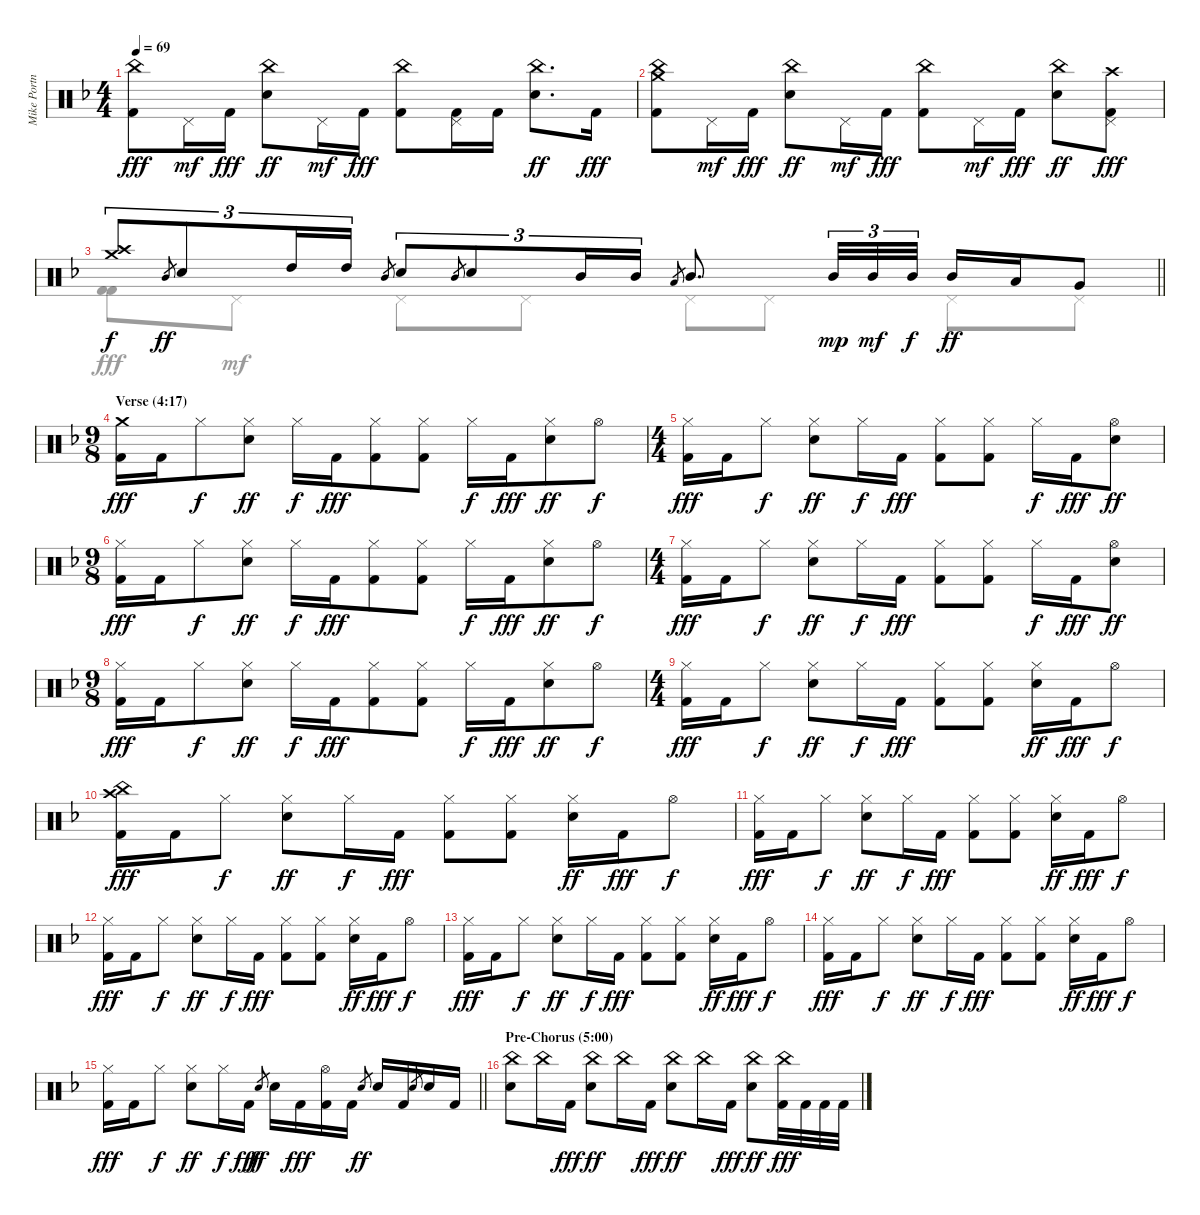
\track ("Mike Portnoy Drums" "Mike Portn") {instrument percussion}
\staff {score}
\articulation defaults
\voice
\ts (4 4)
\tempo 69
\clef neutral
\ks dminor
("China (hit)" "Kick (hit) 2").8{dy fff} "Pedal Hi-Hat (hit)".16{dy mf} "Kick (hit) 2".16{dy fff} ("China (hit)" "Electric Snare (hit)").8{dy ff} "Pedal Hi-Hat (hit)".16{dy mf} "Kick (hit) 2".16{dy fff} ("China (hit)" "Kick (hit) 2").8 ("Pedal Hi-Hat (hit)" "Kick (hit) 2").16 "Kick (hit) 2".16 ("China (hit)" "Electric Snare (hit)").8{d dy ff} "Kick (hit) 2".16{dy fff} |
("China (hit)" "Crash medium (hit)" "Kick (hit) 2").8 "Pedal Hi-Hat (hit)".16{dy mf} "Kick (hit) 2".16{dy fff} ("China (hit)" "Electric Snare (hit)").8{dy ff} "Pedal Hi-Hat (hit)".16{dy mf} "Kick (hit) 2".16{dy fff} ("China (hit)" "Kick (hit) 2").8 "Pedal Hi-Hat (hit)".16{dy mf} "Kick (hit) 2".16{dy fff} ("China (hit)" "Electric Snare (hit)").8{dy ff} ("Crash high (hit)" "Pedal Hi-Hat (hit)" "Kick (hit) 2").8{dy fff} |
\barLineRight lightlight
("Crash high (hit)" "Crash medium (hit)").8{tu (3 2) dy f} "Mid Tom (hit)".8{gr dy ff} "Electric Snare (hit)".8{tu (3 2)} "High Tom (hit)".16{tu (3 2)} "High Tom (hit)".16{tu (3 2)} "Mid Tom (hit)".8{gr} "Electric Snare (hit)".8{tu (3 2)} "Mid Tom (hit)".8{gr} "Electric Snare (hit)".8{tu (3 2)} "Mid Tom (hit)".16{tu (3 2)} "Mid Tom (hit)".16{tu (3 2)} "Low Tom (hit)".8{gr} "Mid Tom (hit)".8{d} "Mid Tom (hit)".32{tu (3 2) dy mp} "Mid Tom (hit)".32{tu (3 2) dy mf} "Mid Tom (hit)".32{tu (3 2) dy f} "Mid Tom (hit)".16{dy ff} "Low Tom (hit)".16 "Very Low Tom (hit)".8 |
\ts (9 8)
\section ("" "Verse (4:17)")
("Crash medium (hit)" "Kick (hit) 2").16{dy fff} "Kick (hit) 2".16 "Hi-Hat (closed)".8{dy f} ("Hi-Hat (closed)" "Electric Snare (hit)").8{dy ff} "Hi-Hat (closed)".16{dy f} "Kick (hit) 2".16{dy fff} ("Hi-Hat (closed)" "Kick (hit) 2").8 ("Hi-Hat (closed)" "Kick (hit) 2").8 "Hi-Hat (closed)".16{dy f} "Kick (hit) 2".16{dy fff} ("Hi-Hat (closed)" "Electric Snare (hit)").8{dy ff} "Hi-Hat (open)".8{dy f} |
\ts (4 4)
("Hi-Hat (closed)" "Kick (hit) 2").16{dy fff} "Kick (hit) 2".16 "Hi-Hat (closed)".8{dy f} ("Hi-Hat (closed)" "Electric Snare (hit)").8{dy ff} "Hi-Hat (closed)".16{dy f} "Kick (hit) 2".16{dy fff} ("Hi-Hat (closed)" "Kick (hit) 2").8 ("Hi-Hat (closed)" "Kick (hit) 2").8 "Hi-Hat (closed)".16{dy f} "Kick (hit) 2".16{dy fff} ("Hi-Hat (open)" "Electric Snare (hit)").8{dy ff} |
\ts (9 8)
("Hi-Hat (closed)" "Kick (hit) 2").16{dy fff} "Kick (hit) 2".16 "Hi-Hat (closed)".8{dy f} ("Hi-Hat (closed)" "Electric Snare (hit)").8{dy ff} "Hi-Hat (closed)".16{dy f} "Kick (hit) 2".16{dy fff} ("Hi-Hat (closed)" "Kick (hit) 2").8 ("Hi-Hat (closed)" "Kick (hit) 2").8 "Hi-Hat (closed)".16{dy f} "Kick (hit) 2".16{dy fff} ("Hi-Hat (closed)" "Electric Snare (hit)").8{dy ff} "Hi-Hat (open)".8{dy f} |
\ts (4 4)
("Hi-Hat (closed)" "Kick (hit) 2").16{dy fff} "Kick (hit) 2".16 "Hi-Hat (closed)".8{dy f} ("Hi-Hat (closed)" "Electric Snare (hit)").8{dy ff} "Hi-Hat (closed)".16{dy f} "Kick (hit) 2".16{dy fff} ("Hi-Hat (closed)" "Kick (hit) 2").8 ("Hi-Hat (closed)" "Kick (hit) 2").8 "Hi-Hat (closed)".16{dy f} "Kick (hit) 2".16{dy fff} ("Hi-Hat (open)" "Electric Snare (hit)").8{dy ff} |
\ts (9 8)
("Hi-Hat (closed)" "Kick (hit) 2").16{dy fff} "Kick (hit) 2".16 "Hi-Hat (closed)".8{dy f} ("Hi-Hat (closed)" "Electric Snare (hit)").8{dy ff} "Hi-Hat (closed)".16{dy f} "Kick (hit) 2".16{dy fff} ("Hi-Hat (closed)" "Kick (hit) 2").8 ("Hi-Hat (closed)" "Kick (hit) 2").8 "Hi-Hat (closed)".16{dy f} "Kick (hit) 2".16{dy fff} ("Hi-Hat (closed)" "Electric Snare (hit)").8{dy ff} "Hi-Hat (open)".8{dy f} |
\ts (4 4)
("Hi-Hat (closed)" "Kick (hit) 2").16{dy fff} "Kick (hit) 2".16 "Hi-Hat (closed)".8{dy f} ("Hi-Hat (closed)" "Electric Snare (hit)").8{dy ff} "Hi-Hat (closed)".16{dy f} "Kick (hit) 2".16{dy fff} ("Hi-Hat (closed)" "Kick (hit) 2").8 ("Hi-Hat (closed)" "Kick (hit) 2").8 ("Hi-Hat (closed)" "Electric Snare (hit)").16{dy ff} "Kick (hit) 2".16{dy fff} "Hi-Hat (open)".8{dy f} |
("Crash high (hit)" "China (hit)" "Kick (hit) 2").16{dy fff} "Kick (hit) 2".16 "Hi-Hat (closed)".8{dy f} ("Hi-Hat (closed)" "Electric Snare (hit)").8{dy ff} "Hi-Hat (closed)".16{dy f} "Kick (hit) 2".16{dy fff} ("Hi-Hat (closed)" "Kick (hit) 2").8 ("Hi-Hat (closed)" "Kick (hit) 2").8 ("Hi-Hat (closed)" "Electric Snare (hit)").16{dy ff} "Kick (hit) 2".16{dy fff} "Hi-Hat (open)".8{dy f} |
("Hi-Hat (closed)" "Kick (hit) 2").16{dy fff} "Kick (hit) 2".16 "Hi-Hat (closed)".8{dy f} ("Hi-Hat (closed)" "Electric Snare (hit)").8{dy ff} "Hi-Hat (closed)".16{dy f} "Kick (hit) 2".16{dy fff} ("Hi-Hat (closed)" "Kick (hit) 2").8 ("Hi-Hat (closed)" "Kick (hit) 2").8 ("Hi-Hat (closed)" "Electric Snare (hit)").16{dy ff} "Kick (hit) 2".16{dy fff} "Hi-Hat (open)".8{dy f} |
("Hi-Hat (closed)" "Kick (hit) 2").16{dy fff} "Kick (hit) 2".16 "Hi-Hat (closed)".8{dy f} ("Hi-Hat (closed)" "Electric Snare (hit)").8{dy ff} "Hi-Hat (closed)".16{dy f} "Kick (hit) 2".16{dy fff} ("Hi-Hat (closed)" "Kick (hit) 2").8 ("Hi-Hat (closed)" "Kick (hit) 2").8 ("Hi-Hat (closed)" "Electric Snare (hit)").16{dy ff} "Kick (hit) 2".16{dy fff} "Hi-Hat (open)".8{dy f} |
("Hi-Hat (closed)" "Kick (hit) 2").16{dy fff} "Kick (hit) 2".16 "Hi-Hat (closed)".8{dy f} ("Hi-Hat (closed)" "Electric Snare (hit)").8{dy ff} "Hi-Hat (closed)".16{dy f} "Kick (hit) 2".16{dy fff} ("Hi-Hat (closed)" "Kick (hit) 2").8 ("Hi-Hat (closed)" "Kick (hit) 2").8 ("Hi-Hat (closed)" "Electric Snare (hit)").16{dy ff} "Kick (hit) 2".16{dy fff} "Hi-Hat (open)".8{dy f} |
("Hi-Hat (closed)" "Kick (hit) 2").16{dy fff} "Kick (hit) 2".16 "Hi-Hat (closed)".8{dy f} ("Hi-Hat (closed)" "Electric Snare (hit)").8{dy ff} "Hi-Hat (closed)".16{dy f} "Kick (hit) 2".16{dy fff} ("Hi-Hat (closed)" "Kick (hit) 2").8 ("Hi-Hat (closed)" "Kick (hit) 2").8 ("Hi-Hat (closed)" "Electric Snare (hit)").16{dy ff} "Kick (hit) 2".16{dy fff} "Hi-Hat (open)".8{dy f} |
\barLineRight lightlight
("Hi-Hat (closed)" "Kick (hit) 2").16{dy fff} "Kick (hit) 2".16 "Hi-Hat (closed)".8{dy f} ("Hi-Hat (closed)" "Electric Snare (hit)").8{dy ff} "Hi-Hat (closed)".16{dy f} "Kick (hit) 2".16{dy fff} "Electric Snare (hit)".8{gr dy ff} "Electric Snare (hit)".16 "Kick (hit) 2".16{dy fff} ("Hi-Hat (open)" "Kick (hit) 2").16 "Kick (hit) 2".16 "Electric Snare (hit)".8{gr dy ff} "Electric Snare (hit)".16 "Kick (hit) 2".16 "Electric Snare (hit)".8{gr} "Electric Snare (hit)".16 "Kick (hit) 2".16 |
\section ("" "Pre-Chorus (5:00)")
("China (hit)" "Electric Snare (hit)").8 "China (hit)".16 "Kick (hit) 2".16{dy fff} ("China (hit)" "Electric Snare (hit)").8{dy ff} "China (hit)".16 "Kick (hit) 2".16{dy fff} ("China (hit)" "Electric Snare (hit)").8{dy ff} "China (hit)".16 "Kick (hit) 2".16{dy fff} ("China (hit)" "Electric Snare (hit)").8{dy ff} ("China (hit)" "Kick (hit) 2").32{dy fff} "Kick (hit) 2".32 "Kick (hit) 2".32 "Kick (hit) 2".32
\voice
\clef neutral
\ottava regular
\simile none
\ks dminor
|
|
\barLineRight lightlight
("Kick (hit) 2" "Kick (hit) 2").8 "Pedal Hi-Hat (hit)".8{dy mf} "Pedal Hi-Hat (hit)".8 "Pedal Hi-Hat (hit)".8 "Pedal Hi-Hat (hit)".8 "Pedal Hi-Hat (hit)".8 "Pedal Hi-Hat (hit)".8 "Pedal Hi-Hat (hit)".8 |
|
|
|
|
|
|
|
|
|
|
|
\barLineRight lightlight
|
